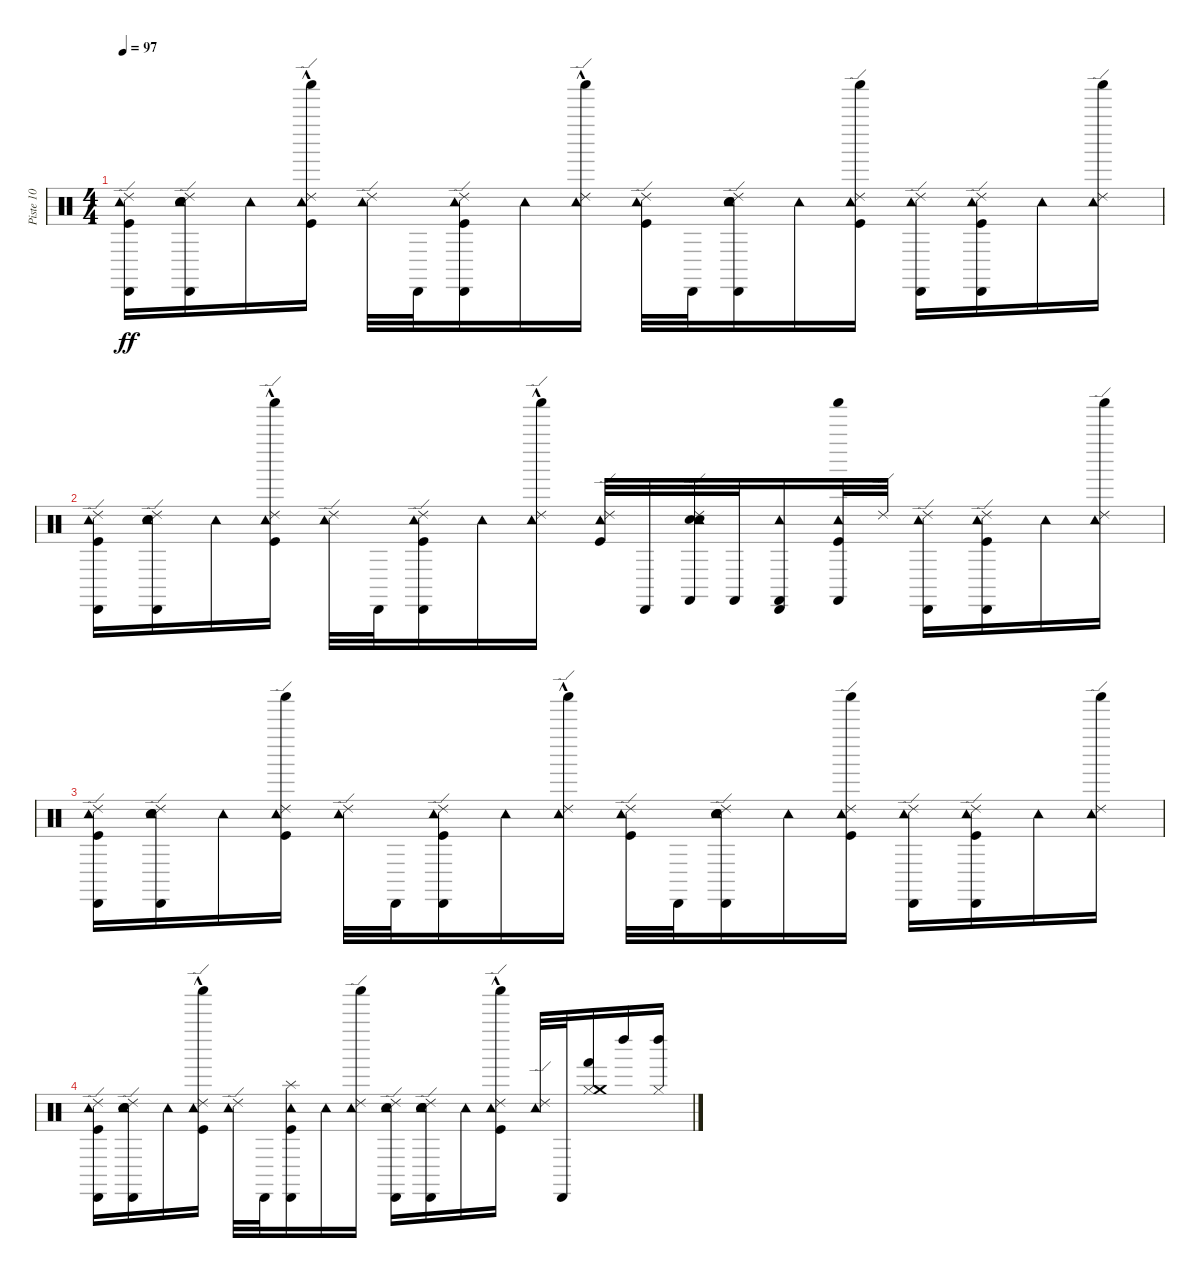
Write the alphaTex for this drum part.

\track ("Piste 10" "Piste 10") {instrument percussion}
\staff {score}
\articulation defaults
\ts (4 4)
\tempo 97
\clef neutral
\ks c
("Cabasa (hit)" "Kick (hit)" "Tambourine (hit)" "Ride (edge) 2").16{dy ff} ("Cabasa (hit)" "Hand Clap (hit)" "Electric Snare (hit)" "Tambourine (hit)" "Ride (edge) 2").16 "Tambourine (hit)".16 ("Shaker (hit)"{hac} "Kick (hit)" "Tambourine (hit)" "Ride (edge) 2").16 ("Tambourine (hit)" "Ride (edge) 2").32 "Cabasa (hit)".32 ("Cabasa (hit)" "Kick (hit)" "Tambourine (hit)" "Ride (edge) 2").16 "Tambourine (hit)".16 ("Shaker (hit)"{hac} "Tambourine (hit)" "Ride (edge) 2").16 ("Kick (hit)" "Tambourine (hit)" "Ride (edge) 2").32 "Cabasa (hit)".32 ("Cabasa (hit)" "Hand Clap (hit)" "Electric Snare (hit)" "Tambourine (hit)" "Ride (edge) 2").16 "Tambourine (hit)".16 ("Shaker (hit)" "Kick (hit)" "Tambourine (hit)" "Ride (edge) 2").16 ("Cabasa (hit)" "Tambourine (hit)" "Ride (edge) 2").16 ("Cabasa (hit)" "Kick (hit)" "Tambourine (hit)" "Ride (edge) 2").16 "Tambourine (hit)".16 ("Shaker (hit)" "Tambourine (hit)" "Ride (edge) 2").16 |
("Cabasa (hit)" "Kick (hit)" "Tambourine (hit)" "Ride (edge) 2").16 ("Cabasa (hit)" "Hand Clap (hit)" "Electric Snare (hit)" "Tambourine (hit)" "Ride (edge) 2").16 "Tambourine (hit)".16 ("Shaker (hit)"{hac} "Kick (hit)" "Tambourine (hit)" "Ride (edge) 2").16 ("Tambourine (hit)" "Ride (edge) 2").32 "Cabasa (hit)".32 ("Cabasa (hit)" "Kick (hit)" "Tambourine (hit)" "Ride (edge) 2").16 "Tambourine (hit)".16 ("Shaker (hit)"{hac} "Tambourine (hit)" "Ride (edge) 2").16 ("Kick (hit)" "Tambourine (hit)" "Ride (edge) 2").32 "Cabasa (hit)".32 ("Castanets (hit)" "Hand Clap (hit)" "Electric Snare (hit)" "Tambourine (hit)" "Ride (edge) 2").32 "Castanets (hit)".32 ("Cabasa (hit)" "Castanets (hit)" "Tambourine (hit)").16 ("Shaker (hit)" "Castanets (hit)" "Kick (hit)" "Tambourine (hit)").32 "Ride (edge) 2".32 ("Cabasa (hit)" "Tambourine (hit)" "Ride (edge) 2").16 ("Cabasa (hit)" "Kick (hit)" "Tambourine (hit)" "Ride (edge) 2").16 "Tambourine (hit)".16 ("Shaker (hit)" "Tambourine (hit)" "Ride (edge) 2").16 |
("Cabasa (hit)" "Kick (hit)" "Tambourine (hit)" "Ride (edge) 2").16 ("Cabasa (hit)" "Hand Clap (hit)" "Electric Snare (hit)" "Tambourine (hit)" "Ride (edge) 2").16 "Tambourine (hit)".16 ("Shaker (hit)" "Kick (hit)" "Tambourine (hit)" "Ride (edge) 2").16 ("Tambourine (hit)" "Ride (edge) 2").32 "Cabasa (hit)".32 ("Cabasa (hit)" "Kick (hit)" "Tambourine (hit)" "Ride (edge) 2").16 "Tambourine (hit)".16 ("Shaker (hit)"{hac} "Tambourine (hit)" "Ride (edge) 2").16 ("Kick (hit)" "Tambourine (hit)" "Ride (edge) 2").32 "Cabasa (hit)".32 ("Cabasa (hit)" "Hand Clap (hit)" "Electric Snare (hit)" "Tambourine (hit)" "Ride (edge) 2").16 "Tambourine (hit)".16 ("Shaker (hit)" "Kick (hit)" "Tambourine (hit)" "Ride (edge) 2").16 ("Cabasa (hit)" "Tambourine (hit)" "Ride (edge) 2").16 ("Cabasa (hit)" "Kick (hit)" "Tambourine (hit)" "Ride (edge) 2").16 "Tambourine (hit)".16 ("Shaker (hit)" "Tambourine (hit)" "Ride (edge) 2").16 |
("Cabasa (hit)" "Kick (hit)" "Tambourine (hit)" "Ride (edge) 2").16 ("Cabasa (hit)" "Hand Clap (hit)" "Electric Snare (hit)" "Tambourine (hit)" "Ride (edge) 2").16 "Tambourine (hit)".16 ("Shaker (hit)"{hac} "Kick (hit)" "Tambourine (hit)" "Ride (edge) 2").16 ("Tambourine (hit)" "Ride (edge) 2").32 "Cabasa (hit)".32 ("Cabasa (hit)" "Kick (hit)" "Tambourine (hit)" "Splash (hit)").16 "Tambourine (hit)".16 ("Shaker (hit)" "Tambourine (hit)" "Ride (edge) 2").16 ("Cabasa (hit)" "Electric Snare (hit)" "Tambourine (hit)" "Ride (edge) 2").16 ("Cabasa (hit)" "Hand Clap (hit)" "Electric Snare (hit)" "Tambourine (hit)" "Ride (edge) 2").16 "Tambourine (hit)".16 ("Shaker (hit)"{hac} "Kick (hit)" "Tambourine (hit)" "Ride (edge) 2").16 ("Tambourine (hit)" "Ride (edge) 2").32 "Cabasa (hit)".32 ("Hand (hit)" "Hi-Hat (closed)" "Crash medium (hit)").16 "Left Maraca (hit)".16 ("Left Maraca (hit)" "Hi-Hat (closed)").16
